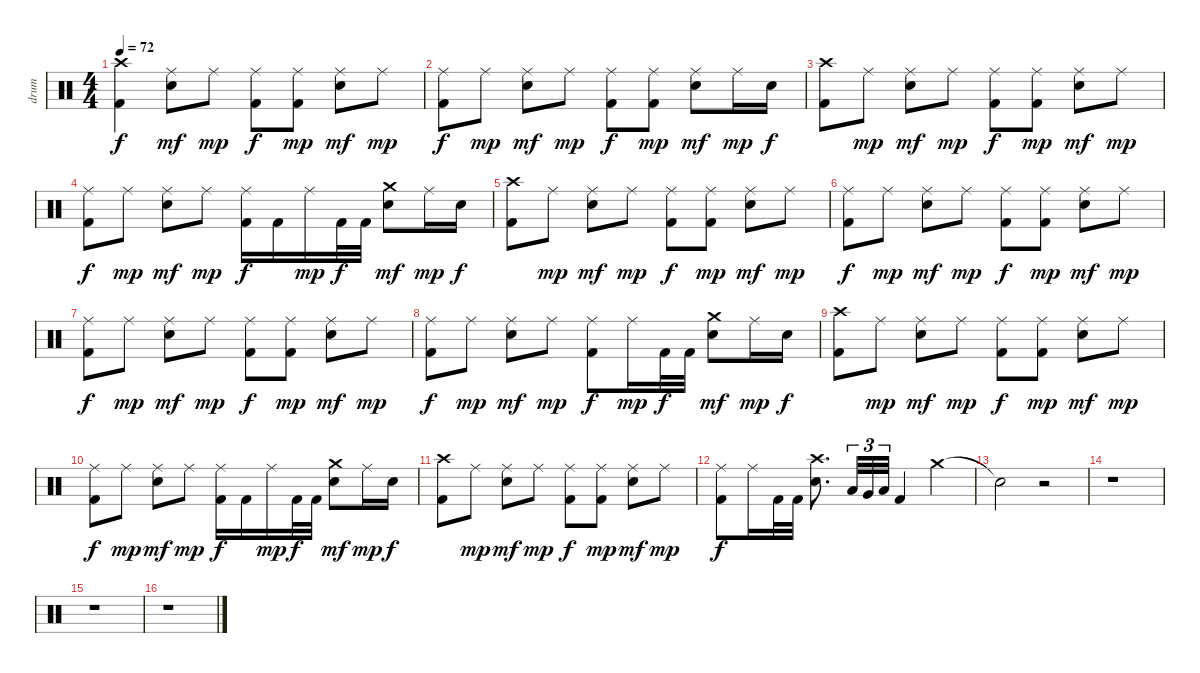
\track ("drum" "drum") {instrument percussion}
\staff {score}
\articulation defaults
\ts (4 4)
\tempo 72
\clef neutral
\ks c
("Crash high (hit)" "Kick (hit) 2").4{dy f} ("Ride (middle)" "Electric Snare (hit)").8{dy mf} "Ride (middle)".8{dy mp} ("Ride (middle)" "Kick (hit) 2").8{dy f} ("Ride (middle)" "Kick (hit) 2").8{dy mp} ("Ride (middle)" "Electric Snare (hit)").8{dy mf} "Ride (middle)".8{dy mp} |
("Ride (middle)" "Kick (hit) 2").8{dy f} "Ride (middle)".8{dy mp} ("Ride (middle)" "Electric Snare (hit)").8{dy mf} "Ride (middle)".8{dy mp} ("Ride (middle)" "Kick (hit) 2").8{dy f} ("Ride (middle)" "Kick (hit) 2").8{dy mp} ("Ride (middle)" "Electric Snare (hit)").8{dy mf} "Ride (middle)".16{dy mp} "Electric Snare (hit)".16{dy f} |
("Crash high (hit)" "Kick (hit) 2").8 "Ride (middle)".8{dy mp} ("Ride (middle)" "Electric Snare (hit)").8{dy mf} "Ride (middle)".8{dy mp} ("Ride (middle)" "Kick (hit) 2").8{dy f} ("Ride (middle)" "Kick (hit) 2").8{dy mp} ("Ride (middle)" "Electric Snare (hit)").8{dy mf} "Ride (middle)".8{dy mp} |
("Ride (middle)" "Kick (hit) 2").8{dy f} "Ride (middle)".8{dy mp} ("Ride (middle)" "Electric Snare (hit)").8{dy mf} "Ride (middle)".8{dy mp} ("Ride (middle)" "Kick (hit) 2").16{dy f} "Kick (hit) 2".16 "Ride (middle)".16{dy mp} "Kick (hit) 2".32{dy f} "Kick (hit) 2".32 ("Crash medium (hit)" "Electric Snare (hit)").8{dy mf} "Ride (middle)".16{dy mp} "Electric Snare (hit)".16{dy f} |
("Crash high (hit)" "Kick (hit) 2").8 "Ride (middle)".8{dy mp} ("Ride (middle)" "Electric Snare (hit)").8{dy mf} "Ride (middle)".8{dy mp} ("Ride (middle)" "Kick (hit) 2").8{dy f} ("Ride (middle)" "Kick (hit) 2").8{dy mp} ("Ride (middle)" "Electric Snare (hit)").8{dy mf} "Ride (middle)".8{dy mp} |
("Ride (middle)" "Kick (hit) 2").8{dy f} "Ride (middle)".8{dy mp} ("Ride (middle)" "Electric Snare (hit)").8{dy mf} "Ride (middle)".8{dy mp} ("Ride (middle)" "Kick (hit) 2").8{dy f} ("Ride (middle)" "Kick (hit) 2").8{dy mp} ("Ride (middle)" "Electric Snare (hit)").8{dy mf} "Ride (middle)".8{dy mp} |
("Ride (middle)" "Kick (hit) 2").8{dy f} "Ride (middle)".8{dy mp} ("Ride (middle)" "Electric Snare (hit)").8{dy mf} "Ride (middle)".8{dy mp} ("Ride (middle)" "Kick (hit) 2").8{dy f} ("Ride (middle)" "Kick (hit) 2").8{dy mp} ("Ride (middle)" "Electric Snare (hit)").8{dy mf} "Ride (middle)".8{dy mp} |
("Ride (middle)" "Kick (hit) 2").8{dy f} "Ride (middle)".8{dy mp} ("Ride (middle)" "Electric Snare (hit)").8{dy mf} "Ride (middle)".8{dy mp} ("Ride (middle)" "Kick (hit) 2").8{dy f} "Ride (middle)".16{dy mp} "Kick (hit) 2".32{dy f} "Kick (hit) 2".32 ("Crash medium (hit)" "Electric Snare (hit)").8{dy mf} "Ride (middle)".16{dy mp} "Electric Snare (hit)".16{dy f} |
("Crash high (hit)" "Kick (hit) 2").8 "Ride (middle)".8{dy mp} ("Ride (middle)" "Electric Snare (hit)").8{dy mf} "Ride (middle)".8{dy mp} ("Ride (middle)" "Kick (hit) 2").8{dy f} ("Ride (middle)" "Kick (hit) 2").8{dy mp} ("Ride (middle)" "Electric Snare (hit)").8{dy mf} "Ride (middle)".8{dy mp} |
("Ride (middle)" "Kick (hit) 2").8{dy f} "Ride (middle)".8{dy mp} ("Ride (middle)" "Electric Snare (hit)").8{dy mf} "Ride (middle)".8{dy mp} ("Ride (middle)" "Kick (hit) 2").16{dy f} "Kick (hit) 2".16 "Ride (middle)".16{dy mp} "Kick (hit) 2".32{dy f} "Kick (hit) 2".32 ("Crash medium (hit)" "Electric Snare (hit)").8{dy mf} "Ride (middle)".16{dy mp} "Electric Snare (hit)".16{dy f} |
("Crash high (hit)" "Kick (hit) 2").8 "Ride (middle)".8{dy mp} ("Ride (middle)" "Electric Snare (hit)").8{dy mf} "Ride (middle)".8{dy mp} ("Ride (middle)" "Kick (hit) 2").8{dy f} ("Ride (middle)" "Kick (hit) 2").8{dy mp} ("Ride (middle)" "Electric Snare (hit)").8{dy mf} "Ride (middle)".8{dy mp} |
("Ride (middle)" "Kick (hit) 2").8{dy f} "Ride (middle)".16 "Kick (hit) 2".32 "Kick (hit) 2".32 ("Crash high (hit)" "Electric Snare (hit)").8{d} "Low Floor Tom (hit)".32{tu (3 2)} "Very Low Tom (hit)".32{tu (3 2)} "Low Floor Tom (hit)".32{tu (3 2)} "Kick (hit) 2".4 "Crash medium (hit)".4 |
"Snare (hit)"{t}.2 r.2 |
r.1 |
r.1 |
r.1
